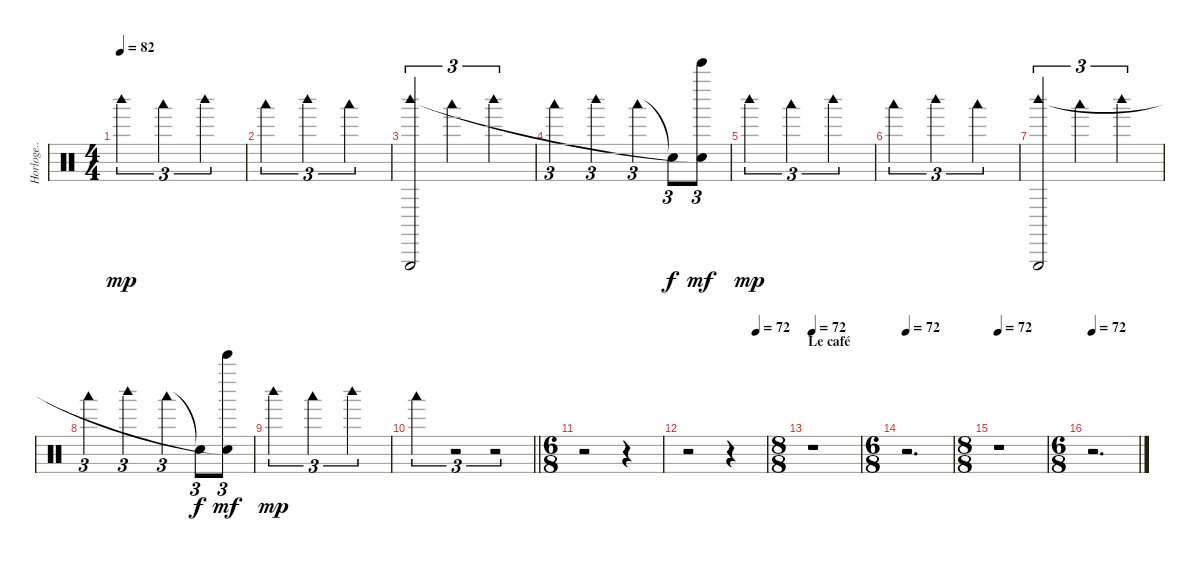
\track ("Horloge.." "Horloge..") {instrument percussion}
\staff {score}
\articulation defaults
\ts (4 4)
\tempo 82
\clef neutral
\ks c "Woodblock high (hit)".2{tu (3 2) dy mp} "Woodblock low (hit)".2{tu (3 2)} "Woodblock high (hit)".2{tu (3 2)}
|
"Woodblock low (hit)".2{tu (3 2)} "Woodblock high (hit)".2{tu (3 2)} "Woodblock low (hit)".2{tu (3 2)} |
("Triangle (hit)" "Woodblock high (hit)").2{tu (3 2)} "Woodblock low (hit)".2{tu (3 2)} "Woodblock high (hit)".2{tu (3 2)} |
"Woodblock low (hit)".2{tu (3 2)} "Woodblock high (hit)".2{tu (3 2)} "Woodblock low (hit)".4{tu (3 2)} "Snare (hit)"{t}.8{tu (3 2) dy f} ("Bell Tree (hit)" "Snare (hit)"{t}).8{tu (3 2) dy mf} |
"Woodblock high (hit)".2{tu (3 2) dy mp} "Woodblock low (hit)".2{tu (3 2)} "Woodblock high (hit)".2{tu (3 2)} |
"Woodblock low (hit)".2{tu (3 2)} "Woodblock high (hit)".2{tu (3 2)} "Woodblock low (hit)".2{tu (3 2)} |
("Triangle (hit)" "Woodblock high (hit)").2{tu (3 2)} "Woodblock low (hit)".2{tu (3 2)} "Woodblock high (hit)".2{tu (3 2)} |
"Woodblock low (hit)".2{tu (3 2)} "Woodblock high (hit)".2{tu (3 2)} "Woodblock low (hit)".4{tu (3 2)} "Snare (hit)"{t}.8{tu (3 2) dy f} ("Bell Tree (hit)" "Snare (hit)"{t}).8{tu (3 2) dy mf} |
"Woodblock high (hit)".2{tu (3 2) dy mp} "Woodblock low (hit)".2{tu (3 2)} "Woodblock high (hit)".2{tu (3 2)} |
\barLineRight lightlight "Woodblock low (hit)".2{tu (3 2)}
r.2{tu (3 2)} r.2{tu (3 2)} |
\ts (6 8)
r.2 r.4 |
\tempo (72 0.875)
r.2 r.4 |
\ts (8 8)
\section ("" "Le café")
\tempo 72
r.1 |
\ts (6 8)
\tempo 72
r.2{d} |
\ts (8 8)
\tempo 72
r.1 |
\ts (6 8)
\tempo 72
r.2{d}
